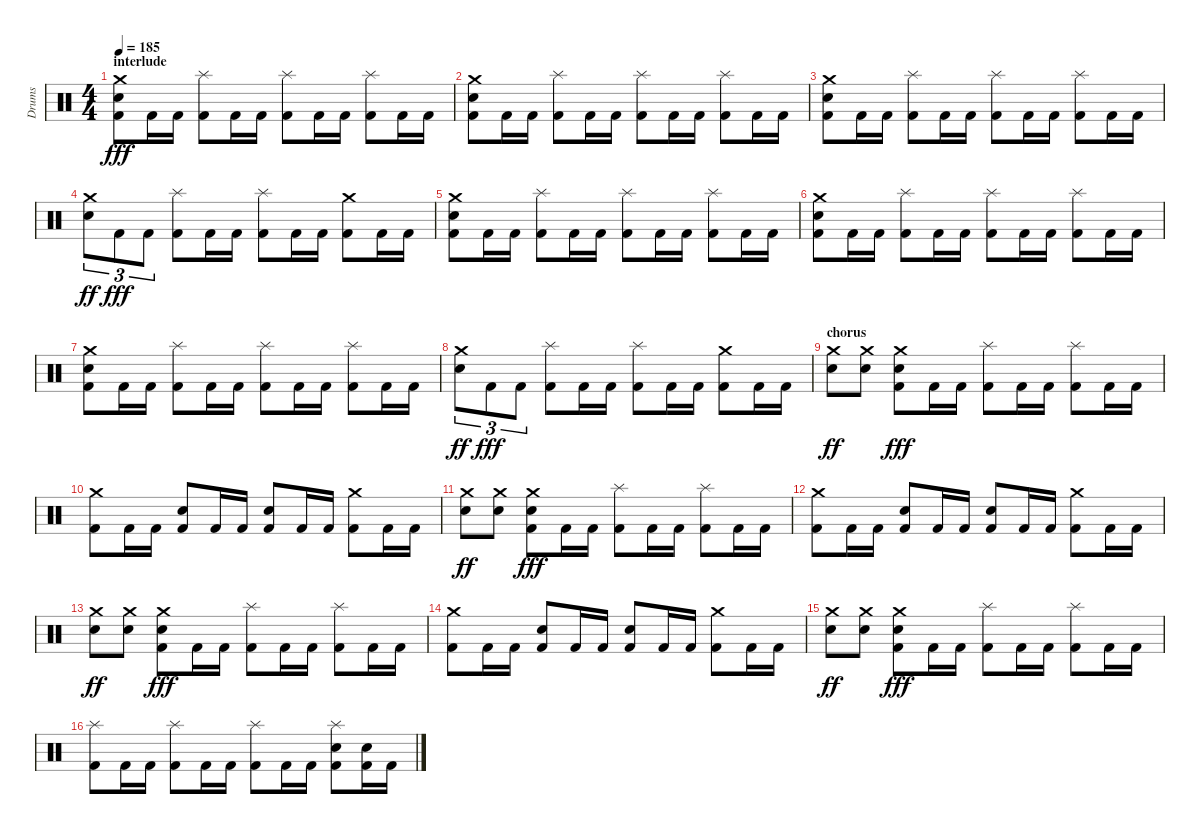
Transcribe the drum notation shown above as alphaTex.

\track ("Drums" "Drums") {instrument percussion}
\staff {score}
\articulation defaults
\ts (4 4)
\section ("" "interlude")
\tempo 185
\clef neutral
\ks c
("Crash medium (hit)" "Electric Snare (hit)" "Kick (hit) 2").8{dy fff} "Kick (hit) 2".16 "Kick (hit) 2".16 ("Splash (hit)" "Kick (hit) 2").8 "Kick (hit) 2".16 "Kick (hit) 2".16 ("Splash (hit)" "Kick (hit) 2").8 "Kick (hit) 2".16 "Kick (hit) 2".16 ("Splash (hit)" "Kick (hit) 2").8 "Kick (hit) 2".16 "Kick (hit) 2".16 |
("Crash medium (hit)" "Electric Snare (hit)" "Kick (hit) 2").8 "Kick (hit) 2".16 "Kick (hit) 2".16 ("Splash (hit)" "Kick (hit) 2").8 "Kick (hit) 2".16 "Kick (hit) 2".16 ("Splash (hit)" "Kick (hit) 2").8 "Kick (hit) 2".16 "Kick (hit) 2".16 ("Splash (hit)" "Kick (hit) 2").8 "Kick (hit) 2".16 "Kick (hit) 2".16 |
("Crash medium (hit)" "Electric Snare (hit)" "Kick (hit) 2").8 "Kick (hit) 2".16 "Kick (hit) 2".16 ("Splash (hit)" "Kick (hit) 2").8 "Kick (hit) 2".16 "Kick (hit) 2".16 ("Splash (hit)" "Kick (hit) 2").8 "Kick (hit) 2".16 "Kick (hit) 2".16 ("Splash (hit)" "Kick (hit) 2").8 "Kick (hit) 2".16 "Kick (hit) 2".16 |
("Crash medium (hit)" "Electric Snare (hit)").8{tu (3 2) dy ff} "Kick (hit) 2".8{tu (3 2) dy fff} "Kick (hit) 2".8{tu (3 2)} ("Splash (hit)" "Kick (hit) 2").8 "Kick (hit) 2".16 "Kick (hit) 2".16 ("Splash (hit)" "Kick (hit) 2").8 "Kick (hit) 2".16 "Kick (hit) 2".16 ("Crash medium (hit)" "Kick (hit) 2").8 "Kick (hit) 2".16 "Kick (hit) 2".16 |
("Crash medium (hit)" "Electric Snare (hit)" "Kick (hit) 2").8 "Kick (hit) 2".16 "Kick (hit) 2".16 ("Splash (hit)" "Kick (hit) 2").8 "Kick (hit) 2".16 "Kick (hit) 2".16 ("Splash (hit)" "Kick (hit) 2").8 "Kick (hit) 2".16 "Kick (hit) 2".16 ("Splash (hit)" "Kick (hit) 2").8 "Kick (hit) 2".16 "Kick (hit) 2".16 |
("Crash medium (hit)" "Electric Snare (hit)" "Kick (hit) 2").8 "Kick (hit) 2".16 "Kick (hit) 2".16 ("Splash (hit)" "Kick (hit) 2").8 "Kick (hit) 2".16 "Kick (hit) 2".16 ("Splash (hit)" "Kick (hit) 2").8 "Kick (hit) 2".16 "Kick (hit) 2".16 ("Splash (hit)" "Kick (hit) 2").8 "Kick (hit) 2".16 "Kick (hit) 2".16 |
("Crash medium (hit)" "Electric Snare (hit)" "Kick (hit) 2").8 "Kick (hit) 2".16 "Kick (hit) 2".16 ("Splash (hit)" "Kick (hit) 2").8 "Kick (hit) 2".16 "Kick (hit) 2".16 ("Splash (hit)" "Kick (hit) 2").8 "Kick (hit) 2".16 "Kick (hit) 2".16 ("Splash (hit)" "Kick (hit) 2").8 "Kick (hit) 2".16 "Kick (hit) 2".16 |
("Crash medium (hit)" "Electric Snare (hit)").8{tu (3 2) dy ff} "Kick (hit) 2".8{tu (3 2) dy fff} "Kick (hit) 2".8{tu (3 2)} ("Splash (hit)" "Kick (hit) 2").8 "Kick (hit) 2".16 "Kick (hit) 2".16 ("Splash (hit)" "Kick (hit) 2").8 "Kick (hit) 2".16 "Kick (hit) 2".16 ("Crash medium (hit)" "Kick (hit) 2").8 "Kick (hit) 2".16 "Kick (hit) 2".16 |
\section ("" "chorus")
("Crash medium (hit)" "Electric Snare (hit)").8{dy ff} ("Crash medium (hit)" "Electric Snare (hit)").8 ("Crash medium (hit)" "Electric Snare (hit)" "Kick (hit) 2").8{dy fff} "Kick (hit) 2".16 "Kick (hit) 2".16 ("Splash (hit)" "Kick (hit) 2").8 "Kick (hit) 2".16 "Kick (hit) 2".16 ("Splash (hit)" "Kick (hit) 2").8 "Kick (hit) 2".16 "Kick (hit) 2".16 |
("Crash medium (hit)" "Kick (hit) 2").8 "Kick (hit) 2".16 "Kick (hit) 2".16 ("Electric Snare (hit)" "Kick (hit) 2").8 "Kick (hit) 2".16 "Kick (hit) 2".16 ("Electric Snare (hit)" "Kick (hit) 2").8 "Kick (hit) 2".16 "Kick (hit) 2".16 ("Crash medium (hit)" "Kick (hit) 2").8 "Kick (hit) 2".16 "Kick (hit) 2".16 |
("Crash medium (hit)" "Electric Snare (hit)").8{dy ff} ("Crash medium (hit)" "Electric Snare (hit)").8 ("Crash medium (hit)" "Electric Snare (hit)" "Kick (hit) 2").8{dy fff} "Kick (hit) 2".16 "Kick (hit) 2".16 ("Splash (hit)" "Kick (hit) 2").8 "Kick (hit) 2".16 "Kick (hit) 2".16 ("Splash (hit)" "Kick (hit) 2").8 "Kick (hit) 2".16 "Kick (hit) 2".16 |
("Crash medium (hit)" "Kick (hit) 2").8 "Kick (hit) 2".16 "Kick (hit) 2".16 ("Electric Snare (hit)" "Kick (hit) 2").8 "Kick (hit) 2".16 "Kick (hit) 2".16 ("Electric Snare (hit)" "Kick (hit) 2").8 "Kick (hit) 2".16 "Kick (hit) 2".16 ("Crash medium (hit)" "Kick (hit) 2").8 "Kick (hit) 2".16 "Kick (hit) 2".16 |
("Crash medium (hit)" "Electric Snare (hit)").8{dy ff} ("Crash medium (hit)" "Electric Snare (hit)").8 ("Crash medium (hit)" "Electric Snare (hit)" "Kick (hit) 2").8{dy fff} "Kick (hit) 2".16 "Kick (hit) 2".16 ("Splash (hit)" "Kick (hit) 2").8 "Kick (hit) 2".16 "Kick (hit) 2".16 ("Splash (hit)" "Kick (hit) 2").8 "Kick (hit) 2".16 "Kick (hit) 2".16 |
("Crash medium (hit)" "Kick (hit) 2").8 "Kick (hit) 2".16 "Kick (hit) 2".16 ("Electric Snare (hit)" "Kick (hit) 2").8 "Kick (hit) 2".16 "Kick (hit) 2".16 ("Electric Snare (hit)" "Kick (hit) 2").8 "Kick (hit) 2".16 "Kick (hit) 2".16 ("Crash medium (hit)" "Kick (hit) 2").8 "Kick (hit) 2".16 "Kick (hit) 2".16 |
("Crash medium (hit)" "Electric Snare (hit)").8{dy ff} ("Crash medium (hit)" "Electric Snare (hit)").8 ("Crash medium (hit)" "Electric Snare (hit)" "Kick (hit) 2").8{dy fff} "Kick (hit) 2".16 "Kick (hit) 2".16 ("Splash (hit)" "Kick (hit) 2").8 "Kick (hit) 2".16 "Kick (hit) 2".16 ("Splash (hit)" "Kick (hit) 2").8 "Kick (hit) 2".16 "Kick (hit) 2".16 |
("Splash (hit)" "Kick (hit) 2").8 "Kick (hit) 2".16 "Kick (hit) 2".16 ("Splash (hit)" "Kick (hit) 2").8 "Kick (hit) 2".16 "Kick (hit) 2".16 ("Splash (hit)" "Kick (hit) 2").8 "Kick (hit) 2".16 "Kick (hit) 2".16 ("Electric Snare (hit)" "Splash (hit)" "Kick (hit) 2").8 ("Electric Snare (hit)" "Kick (hit) 2").16 "Kick (hit) 2".16
